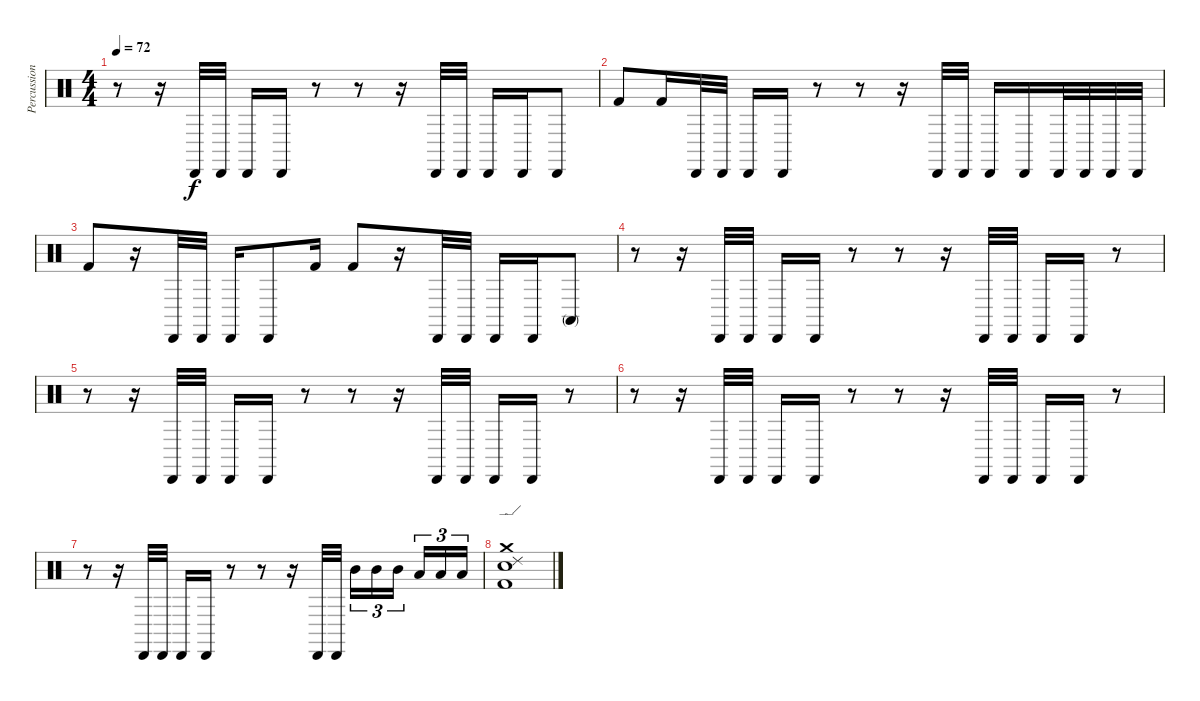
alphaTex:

\track ("Percussion" "Percussion") {instrument percussion}
\staff {score}
\articulation defaults
\ts (4 4)
\tempo 72
\clef neutral
\ks c
r.8{dy f} r.16 "Cabasa (hit)".32 "Cabasa (hit)".32 "Cabasa (hit)".16 "Cabasa (hit)".16 r.8 r.8 r.16 "Cabasa (hit)".32 "Cabasa (hit)".32 "Cabasa (hit)".16 "Cabasa (hit)".16 "Cabasa (hit)".8 |
"Kick (hit) 2".8 "Kick (hit) 2".16 "Cabasa (hit)".32 "Cabasa (hit)".32 "Cabasa (hit)".16 "Cabasa (hit)".16 r.8 r.8 r.16 "Cabasa (hit)".32 "Cabasa (hit)".32 "Cabasa (hit)".16 "Cabasa (hit)".16 "Cabasa (hit)".32 "Cabasa (hit)".32 "Cabasa (hit)".32 "Cabasa (hit)".32 |
"Kick (hit) 2".8 r.16 "Cabasa (hit)".32 "Cabasa (hit)".32 "Cabasa (hit)".16 "Cabasa (hit)".8 "Kick (hit) 2".16 "Kick (hit) 2".8 r.16 "Cabasa (hit)".32 "Cabasa (hit)".32 "Cabasa (hit)".16 "Cabasa (hit)".16 "Conga high (mute)".8 |
r.8 r.16 "Cabasa (hit)".32 "Cabasa (hit)".32 "Cabasa (hit)".16 "Cabasa (hit)".16 r.8 r.8 r.16 "Cabasa (hit)".32 "Cabasa (hit)".32 "Cabasa (hit)".16 "Cabasa (hit)".16 r.8 |
r.8 r.16 "Cabasa (hit)".32 "Cabasa (hit)".32 "Cabasa (hit)".16 "Cabasa (hit)".16 r.8 r.8 r.16 "Cabasa (hit)".32 "Cabasa (hit)".32 "Cabasa (hit)".16 "Cabasa (hit)".16 r.8 |
r.8 r.16 "Cabasa (hit)".32 "Cabasa (hit)".32 "Cabasa (hit)".16 "Cabasa (hit)".16 r.8 r.8 r.16 "Cabasa (hit)".32 "Cabasa (hit)".32 "Cabasa (hit)".16 "Cabasa (hit)".16 r.8 |
r.8 r.16 "Cabasa (hit)".32 "Cabasa (hit)".32 "Cabasa (hit)".16 "Cabasa (hit)".16 r.8 r.8 r.16 "Cabasa (hit)".32 "Cabasa (hit)".32 "Mid Tom (hit)".16{tu (3 2)} "Mid Tom (hit)".16{tu (3 2)} "Mid Tom (hit)".16{tu (3 2)} "Low Tom (hit)".16{tu (3 2)} "Low Tom (hit)".16{tu (3 2)} "Low Tom (hit)".16{tu (3 2)} |
("Crash medium (hit)" "Ride (edge) 2" "Snare (hit) 2" "Kick (hit) 2").1
